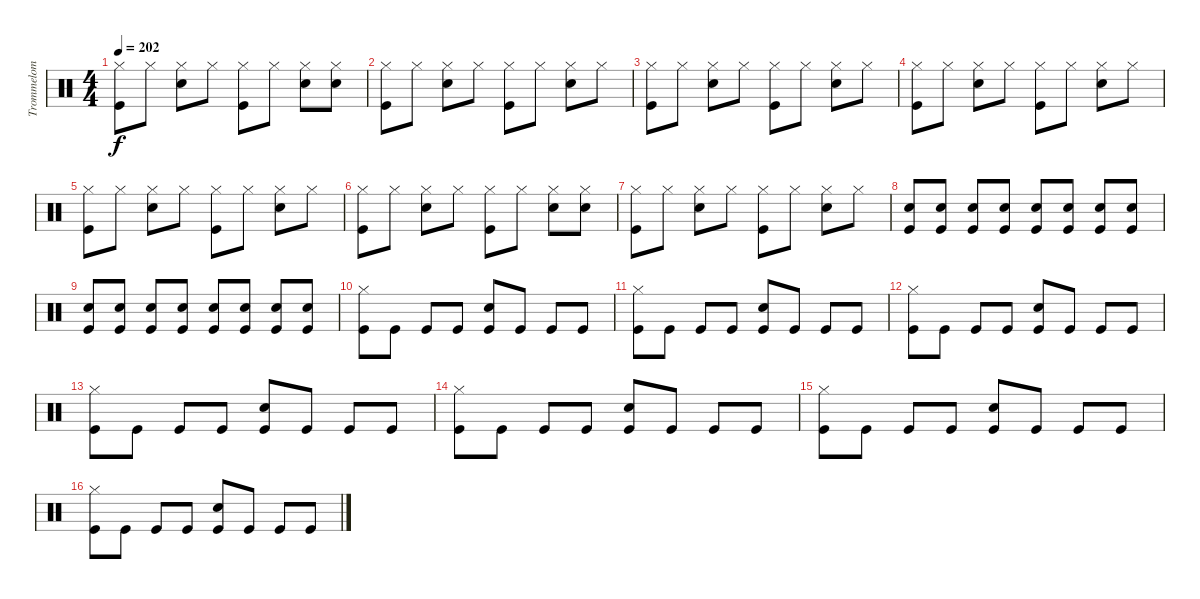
\track ("Trommelom" "Trommelom") {instrument percussion}
\staff {score}
\articulation defaults
\ts (4 4)
\tempo 202
\clef neutral
\ks c
("Hi-Hat (closed)" "Kick (hit)").8{dy f} "Hi-Hat (closed)".8 ("Hi-Hat (closed)" "Electric Snare (hit)").8 "Hi-Hat (closed)".8 ("Hi-Hat (closed)" "Kick (hit)").8 "Hi-Hat (closed)".8 ("Hi-Hat (closed)" "Electric Snare (hit)").8 ("Hi-Hat (closed)" "Snare (hit)").8 |
("Hi-Hat (closed)" "Kick (hit)").8 "Hi-Hat (closed)".8 ("Hi-Hat (closed)" "Electric Snare (hit)").8 "Hi-Hat (closed)".8 ("Hi-Hat (closed)" "Kick (hit)").8 "Hi-Hat (closed)".8 ("Hi-Hat (closed)" "Electric Snare (hit)").8 "Hi-Hat (closed)".8 |
("Hi-Hat (closed)" "Kick (hit)").8 "Hi-Hat (closed)".8 ("Hi-Hat (closed)" "Electric Snare (hit)").8 "Hi-Hat (closed)".8 ("Hi-Hat (closed)" "Kick (hit)").8 "Hi-Hat (closed)".8 ("Hi-Hat (closed)" "Electric Snare (hit)").8 "Hi-Hat (closed)".8 |
("Hi-Hat (closed)" "Kick (hit)").8 "Hi-Hat (closed)".8 ("Hi-Hat (closed)" "Electric Snare (hit)").8 "Hi-Hat (closed)".8 ("Hi-Hat (closed)" "Kick (hit)").8 "Hi-Hat (closed)".8 ("Hi-Hat (closed)" "Electric Snare (hit)").8 "Hi-Hat (closed)".8 |
("Hi-Hat (closed)" "Kick (hit)").8 "Hi-Hat (closed)".8 ("Hi-Hat (closed)" "Electric Snare (hit)").8 "Hi-Hat (closed)".8 ("Hi-Hat (closed)" "Kick (hit)").8 "Hi-Hat (closed)".8 ("Hi-Hat (closed)" "Electric Snare (hit)").8 "Hi-Hat (closed)".8 |
("Hi-Hat (closed)" "Kick (hit)").8 "Hi-Hat (closed)".8 ("Hi-Hat (closed)" "Electric Snare (hit)").8 "Hi-Hat (closed)".8 ("Hi-Hat (closed)" "Kick (hit)").8 "Hi-Hat (closed)".8 ("Hi-Hat (closed)" "Electric Snare (hit)").8 ("Hi-Hat (closed)" "Snare (hit)").8 |
("Hi-Hat (closed)" "Kick (hit)").8 "Hi-Hat (closed)".8 ("Hi-Hat (closed)" "Electric Snare (hit)").8 "Hi-Hat (closed)".8 ("Hi-Hat (closed)" "Kick (hit)").8 "Hi-Hat (closed)".8 ("Hi-Hat (closed)" "Electric Snare (hit)").8 "Hi-Hat (closed)".8 |
("Kick (hit)" "Electric Snare (hit)").8 ("Kick (hit)" "Electric Snare (hit)").8 ("Kick (hit)" "Electric Snare (hit)").8 ("Kick (hit)" "Electric Snare (hit)").8 ("Kick (hit)" "Electric Snare (hit)").8 ("Kick (hit)" "Electric Snare (hit)").8 ("Kick (hit)" "Electric Snare (hit)").8 ("Kick (hit)" "Electric Snare (hit)").8 |
("Kick (hit)" "Electric Snare (hit)").8 ("Kick (hit)" "Electric Snare (hit)").8 ("Kick (hit)" "Electric Snare (hit)").8 ("Kick (hit)" "Electric Snare (hit)").8 ("Kick (hit)" "Electric Snare (hit)").8 ("Kick (hit)" "Electric Snare (hit)").8 ("Kick (hit)" "Electric Snare (hit)").8 ("Kick (hit)" "Electric Snare (hit)").8 |
("Hi-Hat (closed)" "Kick (hit)").8 "Kick (hit)".8 "Kick (hit)".8 "Kick (hit)".8 ("Electric Snare (hit)" "Kick (hit)").8 "Kick (hit)".8 "Kick (hit)".8 "Kick (hit)".8 |
("Hi-Hat (closed)" "Kick (hit)").8 "Kick (hit)".8 "Kick (hit)".8 "Kick (hit)".8 ("Electric Snare (hit)" "Kick (hit)").8 "Kick (hit)".8 "Kick (hit)".8 "Kick (hit)".8 |
("Hi-Hat (closed)" "Kick (hit)").8 "Kick (hit)".8 "Kick (hit)".8 "Kick (hit)".8 ("Electric Snare (hit)" "Kick (hit)").8 "Kick (hit)".8 "Kick (hit)".8 "Kick (hit)".8 |
("Hi-Hat (closed)" "Kick (hit)").8 "Kick (hit)".8 "Kick (hit)".8 "Kick (hit)".8 ("Electric Snare (hit)" "Kick (hit)").8 "Kick (hit)".8 "Kick (hit)".8 "Kick (hit)".8 |
("Hi-Hat (closed)" "Kick (hit)").8 "Kick (hit)".8 "Kick (hit)".8 "Kick (hit)".8 ("Electric Snare (hit)" "Kick (hit)").8 "Kick (hit)".8 "Kick (hit)".8 "Kick (hit)".8 |
("Hi-Hat (closed)" "Kick (hit)").8 "Kick (hit)".8 "Kick (hit)".8 "Kick (hit)".8 ("Electric Snare (hit)" "Kick (hit)").8 "Kick (hit)".8 "Kick (hit)".8 "Kick (hit)".8 |
("Hi-Hat (closed)" "Kick (hit)").8 "Kick (hit)".8 "Kick (hit)".8 "Kick (hit)".8 ("Electric Snare (hit)" "Kick (hit)").8 "Kick (hit)".8 "Kick (hit)".8 "Kick (hit)".8
